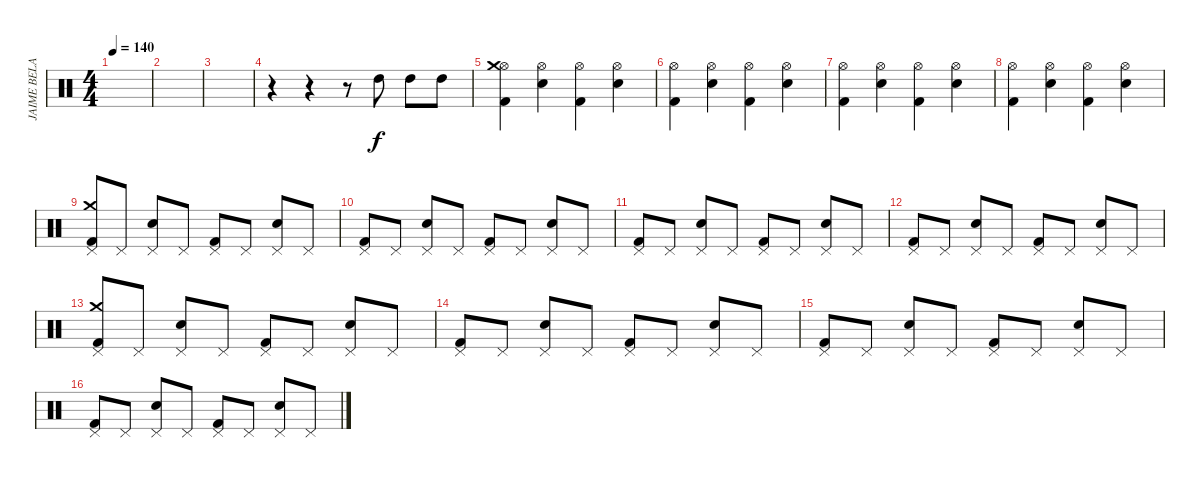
\track ("JAIME BELAUSTEGUI" "JAIME BELA") {instrument percussion}
\staff {score}
\articulation defaults
\ts (4 4)
\tempo 140
\clef neutral
\ks c
|
|
|
r.4 r.4 r.8 "High Tom (hit)".8 "High Tom (hit)".8 "High Tom (hit)".8 |
("Kick (hit) 2" "Hi-Hat (open)" "Crash medium (hit)").4 ("Electric Snare (hit)" "Hi-Hat (open)").4 ("Kick (hit) 2" "Hi-Hat (open)").4 ("Electric Snare (hit)" "Hi-Hat (open)").4 |
("Kick (hit) 2" "Hi-Hat (open)").4 ("Electric Snare (hit)" "Hi-Hat (open)").4 ("Kick (hit) 2" "Hi-Hat (open)").4 ("Electric Snare (hit)" "Hi-Hat (open)").4 |
("Kick (hit) 2" "Hi-Hat (open)").4 ("Electric Snare (hit)" "Hi-Hat (open)").4 ("Kick (hit) 2" "Hi-Hat (open)").4 ("Electric Snare (hit)" "Hi-Hat (open)").4 |
("Kick (hit) 2" "Hi-Hat (open)").4 ("Electric Snare (hit)" "Hi-Hat (open)").4 ("Kick (hit) 2" "Hi-Hat (open)").4 ("Electric Snare (hit)" "Hi-Hat (open)").4 |
("Kick (hit) 2" "Crash medium (hit)" "Pedal Hi-Hat (hit)").8 "Pedal Hi-Hat (hit)".8 ("Electric Snare (hit)" "Pedal Hi-Hat (hit)").8 "Pedal Hi-Hat (hit)".8 ("Kick (hit) 2" "Pedal Hi-Hat (hit)").8 "Pedal Hi-Hat (hit)".8 ("Electric Snare (hit)" "Pedal Hi-Hat (hit)").8 "Pedal Hi-Hat (hit)".8 |
("Kick (hit) 2" "Pedal Hi-Hat (hit)").8 "Pedal Hi-Hat (hit)".8 ("Electric Snare (hit)" "Pedal Hi-Hat (hit)").8 "Pedal Hi-Hat (hit)".8 ("Kick (hit) 2" "Pedal Hi-Hat (hit)").8 "Pedal Hi-Hat (hit)".8 ("Electric Snare (hit)" "Pedal Hi-Hat (hit)").8 "Pedal Hi-Hat (hit)".8 |
("Kick (hit) 2" "Pedal Hi-Hat (hit)").8 "Pedal Hi-Hat (hit)".8 ("Electric Snare (hit)" "Pedal Hi-Hat (hit)").8 "Pedal Hi-Hat (hit)".8 ("Kick (hit) 2" "Pedal Hi-Hat (hit)").8 "Pedal Hi-Hat (hit)".8 ("Electric Snare (hit)" "Pedal Hi-Hat (hit)").8 "Pedal Hi-Hat (hit)".8 |
("Kick (hit) 2" "Pedal Hi-Hat (hit)").8 "Pedal Hi-Hat (hit)".8 ("Electric Snare (hit)" "Pedal Hi-Hat (hit)").8 "Pedal Hi-Hat (hit)".8 ("Kick (hit) 2" "Pedal Hi-Hat (hit)").8 "Pedal Hi-Hat (hit)".8 ("Electric Snare (hit)" "Pedal Hi-Hat (hit)").8 "Pedal Hi-Hat (hit)".8 |
("Kick (hit) 2" "Crash medium (hit)" "Pedal Hi-Hat (hit)").8 "Pedal Hi-Hat (hit)".8 ("Electric Snare (hit)" "Pedal Hi-Hat (hit)").8 "Pedal Hi-Hat (hit)".8 ("Kick (hit) 2" "Pedal Hi-Hat (hit)").8 "Pedal Hi-Hat (hit)".8 ("Electric Snare (hit)" "Pedal Hi-Hat (hit)").8 "Pedal Hi-Hat (hit)".8 |
("Kick (hit) 2" "Pedal Hi-Hat (hit)").8 "Pedal Hi-Hat (hit)".8 ("Electric Snare (hit)" "Pedal Hi-Hat (hit)").8 "Pedal Hi-Hat (hit)".8 ("Kick (hit) 2" "Pedal Hi-Hat (hit)").8 "Pedal Hi-Hat (hit)".8 ("Electric Snare (hit)" "Pedal Hi-Hat (hit)").8 "Pedal Hi-Hat (hit)".8 |
("Kick (hit) 2" "Pedal Hi-Hat (hit)").8 "Pedal Hi-Hat (hit)".8 ("Electric Snare (hit)" "Pedal Hi-Hat (hit)").8 "Pedal Hi-Hat (hit)".8 ("Kick (hit) 2" "Pedal Hi-Hat (hit)").8 "Pedal Hi-Hat (hit)".8 ("Electric Snare (hit)" "Pedal Hi-Hat (hit)").8 "Pedal Hi-Hat (hit)".8 |
("Kick (hit) 2" "Pedal Hi-Hat (hit)").8 "Pedal Hi-Hat (hit)".8 ("Electric Snare (hit)" "Pedal Hi-Hat (hit)").8 "Pedal Hi-Hat (hit)".8 ("Kick (hit) 2" "Pedal Hi-Hat (hit)").8 "Pedal Hi-Hat (hit)".8 ("Electric Snare (hit)" "Pedal Hi-Hat (hit)").8 "Pedal Hi-Hat (hit)".8
